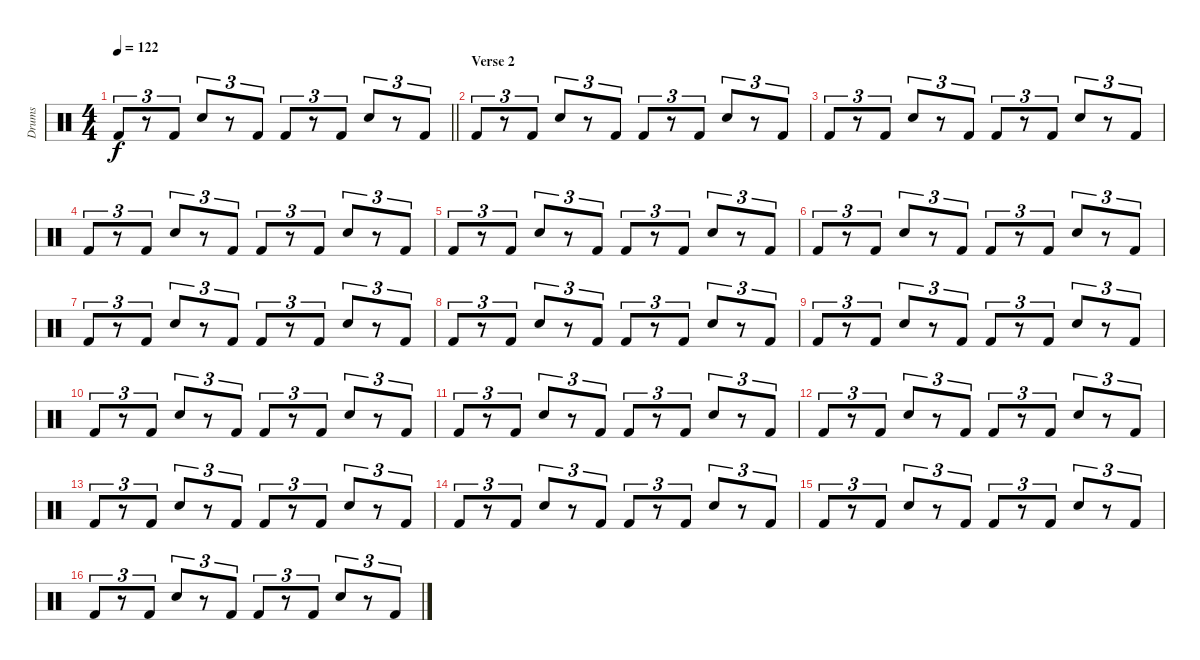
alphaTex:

\track ("Drums" "Drums") {instrument percussion}
\staff {score}
\articulation defaults
\ts (4 4)
\tempo 122
\clef neutral
\barLineRight lightlight
\ks c "Kick (hit) 2".8{tu (3 2) dy f}
r.8{tu (3 2)} "Kick (hit) 2".8{tu (3 2)} "Snare (hit) 2".8{tu (3 2)} r.8{tu (3 2)} "Kick (hit) 2".8{tu (3 2)} "Kick (hit) 2".8{tu (3 2)} r.8{tu (3 2)} "Kick (hit) 2".8{tu (3 2)} "Snare (hit) 2".8{tu (3 2)} r.8{tu (3 2)} "Kick (hit) 2".8{tu (3 2)} |
\section ("" "Verse 2")
"Kick (hit) 2".8{tu (3 2)} r.8{tu (3 2)} "Kick (hit) 2".8{tu (3 2)} "Snare (hit) 2".8{tu (3 2)} r.8{tu (3 2)} "Kick (hit) 2".8{tu (3 2)} "Kick (hit) 2".8{tu (3 2)} r.8{tu (3 2)} "Kick (hit) 2".8{tu (3 2)} "Snare (hit) 2".8{tu (3 2)} r.8{tu (3 2)} "Kick (hit) 2".8{tu (3 2)} |
"Kick (hit) 2".8{tu (3 2)} r.8{tu (3 2)} "Kick (hit) 2".8{tu (3 2)} "Snare (hit) 2".8{tu (3 2)} r.8{tu (3 2)} "Kick (hit) 2".8{tu (3 2)} "Kick (hit) 2".8{tu (3 2)} r.8{tu (3 2)} "Kick (hit) 2".8{tu (3 2)} "Snare (hit) 2".8{tu (3 2)} r.8{tu (3 2)} "Kick (hit) 2".8{tu (3 2)} |
"Kick (hit) 2".8{tu (3 2)} r.8{tu (3 2)} "Kick (hit) 2".8{tu (3 2)} "Snare (hit) 2".8{tu (3 2)} r.8{tu (3 2)} "Kick (hit) 2".8{tu (3 2)} "Kick (hit) 2".8{tu (3 2)} r.8{tu (3 2)} "Kick (hit) 2".8{tu (3 2)} "Snare (hit) 2".8{tu (3 2)} r.8{tu (3 2)} "Kick (hit) 2".8{tu (3 2)} |
"Kick (hit) 2".8{tu (3 2)} r.8{tu (3 2)} "Kick (hit) 2".8{tu (3 2)} "Snare (hit) 2".8{tu (3 2)} r.8{tu (3 2)} "Kick (hit) 2".8{tu (3 2)} "Kick (hit) 2".8{tu (3 2)} r.8{tu (3 2)} "Kick (hit) 2".8{tu (3 2)} "Snare (hit) 2".8{tu (3 2)} r.8{tu (3 2)} "Kick (hit) 2".8{tu (3 2)} |
"Kick (hit) 2".8{tu (3 2)} r.8{tu (3 2)} "Kick (hit) 2".8{tu (3 2)} "Snare (hit) 2".8{tu (3 2)} r.8{tu (3 2)} "Kick (hit) 2".8{tu (3 2)} "Kick (hit) 2".8{tu (3 2)} r.8{tu (3 2)} "Kick (hit) 2".8{tu (3 2)} "Snare (hit) 2".8{tu (3 2)} r.8{tu (3 2)} "Kick (hit) 2".8{tu (3 2)} |
"Kick (hit) 2".8{tu (3 2)} r.8{tu (3 2)} "Kick (hit) 2".8{tu (3 2)} "Snare (hit) 2".8{tu (3 2)} r.8{tu (3 2)} "Kick (hit) 2".8{tu (3 2)} "Kick (hit) 2".8{tu (3 2)} r.8{tu (3 2)} "Kick (hit) 2".8{tu (3 2)} "Snare (hit) 2".8{tu (3 2)} r.8{tu (3 2)} "Kick (hit) 2".8{tu (3 2)} |
"Kick (hit) 2".8{tu (3 2)} r.8{tu (3 2)} "Kick (hit) 2".8{tu (3 2)} "Snare (hit) 2".8{tu (3 2)} r.8{tu (3 2)} "Kick (hit) 2".8{tu (3 2)} "Kick (hit) 2".8{tu (3 2)} r.8{tu (3 2)} "Kick (hit) 2".8{tu (3 2)} "Snare (hit) 2".8{tu (3 2)} r.8{tu (3 2)} "Kick (hit) 2".8{tu (3 2)} |
"Kick (hit) 2".8{tu (3 2)} r.8{tu (3 2)} "Kick (hit) 2".8{tu (3 2)} "Snare (hit) 2".8{tu (3 2)} r.8{tu (3 2)} "Kick (hit) 2".8{tu (3 2)} "Kick (hit) 2".8{tu (3 2)} r.8{tu (3 2)} "Kick (hit) 2".8{tu (3 2)} "Snare (hit) 2".8{tu (3 2)} r.8{tu (3 2)} "Kick (hit) 2".8{tu (3 2)} |
"Kick (hit) 2".8{tu (3 2)} r.8{tu (3 2)} "Kick (hit) 2".8{tu (3 2)} "Snare (hit) 2".8{tu (3 2)} r.8{tu (3 2)} "Kick (hit) 2".8{tu (3 2)} "Kick (hit) 2".8{tu (3 2)} r.8{tu (3 2)} "Kick (hit) 2".8{tu (3 2)} "Snare (hit) 2".8{tu (3 2)} r.8{tu (3 2)} "Kick (hit) 2".8{tu (3 2)} |
"Kick (hit) 2".8{tu (3 2)} r.8{tu (3 2)} "Kick (hit) 2".8{tu (3 2)} "Snare (hit) 2".8{tu (3 2)} r.8{tu (3 2)} "Kick (hit) 2".8{tu (3 2)} "Kick (hit) 2".8{tu (3 2)} r.8{tu (3 2)} "Kick (hit) 2".8{tu (3 2)} "Snare (hit) 2".8{tu (3 2)} r.8{tu (3 2)} "Kick (hit) 2".8{tu (3 2)} |
"Kick (hit) 2".8{tu (3 2)} r.8{tu (3 2)} "Kick (hit) 2".8{tu (3 2)} "Snare (hit) 2".8{tu (3 2)} r.8{tu (3 2)} "Kick (hit) 2".8{tu (3 2)} "Kick (hit) 2".8{tu (3 2)} r.8{tu (3 2)} "Kick (hit) 2".8{tu (3 2)} "Snare (hit) 2".8{tu (3 2)} r.8{tu (3 2)} "Kick (hit) 2".8{tu (3 2)} |
"Kick (hit) 2".8{tu (3 2)} r.8{tu (3 2)} "Kick (hit) 2".8{tu (3 2)} "Snare (hit) 2".8{tu (3 2)} r.8{tu (3 2)} "Kick (hit) 2".8{tu (3 2)} "Kick (hit) 2".8{tu (3 2)} r.8{tu (3 2)} "Kick (hit) 2".8{tu (3 2)} "Snare (hit) 2".8{tu (3 2)} r.8{tu (3 2)} "Kick (hit) 2".8{tu (3 2)} |
"Kick (hit) 2".8{tu (3 2)} r.8{tu (3 2)} "Kick (hit) 2".8{tu (3 2)} "Snare (hit) 2".8{tu (3 2)} r.8{tu (3 2)} "Kick (hit) 2".8{tu (3 2)} "Kick (hit) 2".8{tu (3 2)} r.8{tu (3 2)} "Kick (hit) 2".8{tu (3 2)} "Snare (hit) 2".8{tu (3 2)} r.8{tu (3 2)} "Kick (hit) 2".8{tu (3 2)} |
"Kick (hit) 2".8{tu (3 2)} r.8{tu (3 2)} "Kick (hit) 2".8{tu (3 2)} "Snare (hit) 2".8{tu (3 2)} r.8{tu (3 2)} "Kick (hit) 2".8{tu (3 2)} "Kick (hit) 2".8{tu (3 2)} r.8{tu (3 2)} "Kick (hit) 2".8{tu (3 2)} "Snare (hit) 2".8{tu (3 2)} r.8{tu (3 2)} "Kick (hit) 2".8{tu (3 2)} |
"Kick (hit) 2".8{tu (3 2)} r.8{tu (3 2)} "Kick (hit) 2".8{tu (3 2)} "Snare (hit) 2".8{tu (3 2)} r.8{tu (3 2)} "Kick (hit) 2".8{tu (3 2)} "Kick (hit) 2".8{tu (3 2)} r.8{tu (3 2)} "Kick (hit) 2".8{tu (3 2)} "Snare (hit) 2".8{tu (3 2)} r.8{tu (3 2)} "Kick (hit) 2".8{tu (3 2)}
